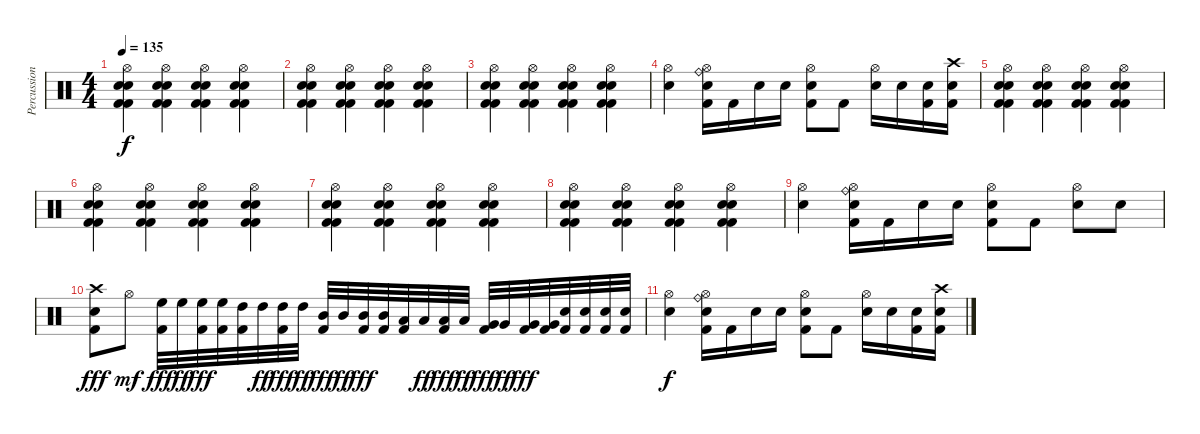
\track ("Percussions" "Percussion") {instrument percussion}
\staff {score}
\articulation defaults
\ts (4 4)
\tempo 135
\clef neutral
\ks c
("Hi-Hat (open)" "Electric Snare (hit)" "Electric Snare (hit)" "Kick (hit) 2" "Kick (hit) 2").4{dy f} ("Hi-Hat (open)" "Electric Snare (hit)" "Electric Snare (hit)" "Kick (hit) 2" "Kick (hit) 2").4 ("Hi-Hat (open)" "Electric Snare (hit)" "Electric Snare (hit)" "Kick (hit) 2" "Kick (hit) 2").4 ("Hi-Hat (open)" "Electric Snare (hit)" "Electric Snare (hit)" "Kick (hit) 2" "Kick (hit) 2").4 |
("Hi-Hat (open)" "Electric Snare (hit)" "Electric Snare (hit)" "Kick (hit) 2" "Kick (hit) 2").4 ("Hi-Hat (open)" "Electric Snare (hit)" "Electric Snare (hit)" "Kick (hit) 2" "Kick (hit) 2").4 ("Hi-Hat (open)" "Electric Snare (hit)" "Electric Snare (hit)" "Kick (hit) 2" "Kick (hit) 2").4 ("Hi-Hat (open)" "Electric Snare (hit)" "Electric Snare (hit)" "Kick (hit) 2" "Kick (hit) 2").4 |
("Hi-Hat (open)" "Electric Snare (hit)" "Electric Snare (hit)" "Kick (hit) 2" "Kick (hit) 2").4 ("Hi-Hat (open)" "Electric Snare (hit)" "Electric Snare (hit)" "Kick (hit) 2" "Kick (hit) 2").4 ("Hi-Hat (open)" "Electric Snare (hit)" "Electric Snare (hit)" "Kick (hit) 2" "Kick (hit) 2").4 ("Hi-Hat (open)" "Electric Snare (hit)" "Electric Snare (hit)" "Kick (hit) 2" "Kick (hit) 2").4 |
("Hi-Hat (open)" "Electric Snare (hit)").4 ("Hi-Hat (open)" "Ride (bell)" "Electric Snare (hit)" "Kick (hit) 2").16 "Kick (hit) 2".16 "Electric Snare (hit)".16 "Electric Snare (hit)".16 ("Hi-Hat (open)" "Electric Snare (hit)" "Kick (hit) 2").8 "Kick (hit) 2".8 ("Hi-Hat (open)" "Electric Snare (hit)").16 "Electric Snare (hit)".16 ("Electric Snare (hit)" "Kick (hit) 2").16 ("Crash high (hit)" "Electric Snare (hit)" "Kick (hit) 2").16 |
("Hi-Hat (open)" "Electric Snare (hit)" "Electric Snare (hit)" "Kick (hit) 2" "Kick (hit) 2").4 ("Hi-Hat (open)" "Electric Snare (hit)" "Electric Snare (hit)" "Kick (hit) 2" "Kick (hit) 2").4 ("Hi-Hat (open)" "Electric Snare (hit)" "Electric Snare (hit)" "Kick (hit) 2" "Kick (hit) 2").4 ("Hi-Hat (open)" "Electric Snare (hit)" "Electric Snare (hit)" "Kick (hit) 2" "Kick (hit) 2").4 |
("Hi-Hat (open)" "Electric Snare (hit)" "Electric Snare (hit)" "Kick (hit) 2" "Kick (hit) 2").4 ("Hi-Hat (open)" "Electric Snare (hit)" "Electric Snare (hit)" "Kick (hit) 2" "Kick (hit) 2").4 ("Hi-Hat (open)" "Electric Snare (hit)" "Electric Snare (hit)" "Kick (hit) 2" "Kick (hit) 2").4 ("Hi-Hat (open)" "Electric Snare (hit)" "Electric Snare (hit)" "Kick (hit) 2" "Kick (hit) 2").4 |
("Hi-Hat (open)" "Electric Snare (hit)" "Electric Snare (hit)" "Kick (hit) 2" "Kick (hit) 2").4 ("Hi-Hat (open)" "Electric Snare (hit)" "Electric Snare (hit)" "Kick (hit) 2" "Kick (hit) 2").4 ("Hi-Hat (open)" "Electric Snare (hit)" "Electric Snare (hit)" "Kick (hit) 2" "Kick (hit) 2").4 ("Hi-Hat (open)" "Electric Snare (hit)" "Electric Snare (hit)" "Kick (hit) 2" "Kick (hit) 2").4 |
("Hi-Hat (open)" "Electric Snare (hit)" "Electric Snare (hit)" "Kick (hit) 2" "Kick (hit) 2").4 ("Hi-Hat (open)" "Electric Snare (hit)" "Electric Snare (hit)" "Kick (hit) 2" "Kick (hit) 2").4 ("Hi-Hat (open)" "Electric Snare (hit)" "Electric Snare (hit)" "Kick (hit) 2" "Kick (hit) 2").4 ("Hi-Hat (open)" "Electric Snare (hit)" "Electric Snare (hit)" "Kick (hit) 2" "Kick (hit) 2").4 |
("Hi-Hat (open)" "Electric Snare (hit)").4 ("Hi-Hat (open)" "Ride (bell)" "Electric Snare (hit)" "Kick (hit) 2").16 "Kick (hit) 2".16 "Electric Snare (hit)".16 "Electric Snare (hit)".16 ("Hi-Hat (open)" "Electric Snare (hit)" "Kick (hit) 2").8 "Kick (hit) 2".8 ("Hi-Hat (open)" "Electric Snare (hit)").8 "Electric Snare (hit)".8 |
("Crash high (hit)" "Electric Snare (hit)" "Kick (hit) 2").8{dy fff} "Hi-Hat (open)".8{dy mf} ("High Floor Tom (hit)" "Kick (hit) 2").32{dy fff} "High Floor Tom (hit)".32{dy ff} ("High Floor Tom (hit)" "Kick (hit) 2").32{dy fff} ("High Floor Tom (hit)" "Kick (hit) 2").32 ("High Tom (hit)" "Kick (hit) 2").32 "High Tom (hit)".32{dy ff} ("High Tom (hit)" "Kick (hit) 2").32{dy fff} "High Tom (hit)".32{dy ff} ("Mid Tom (hit)" "Kick (hit) 2").32{dy fff} "Mid Tom (hit)".32{dy ff} ("Mid Tom (hit)" "Kick (hit) 2").32{dy fff} ("Mid Tom (hit)" "Kick (hit) 2").32 ("Low Tom (hit)" "Kick (hit) 2").32 "Low Tom (hit)".32{dy ff} ("Low Tom (hit)" "Kick (hit) 2").32{dy fff} "Low Tom (hit)".32{dy ff} ("Very Low Tom (hit)" "Kick (hit) 2").32{dy fff} "Very Low Tom (hit)".32{dy ff} ("Very Low Tom (hit)" "Kick (hit) 2").32{dy fff} ("Very Low Tom (hit)" "Kick (hit) 2").32 ("Electric Snare (hit)" "Kick (hit) 2").32 ("Electric Snare (hit)" "Kick (hit) 2").32 ("Electric Snare (hit)" "Kick (hit) 2").32 ("Electric Snare (hit)" "Kick (hit) 2").32 |
("Hi-Hat (open)" "Electric Snare (hit)").4{dy f} ("Hi-Hat (open)" "Ride (bell)" "Electric Snare (hit)" "Kick (hit) 2").16 "Kick (hit) 2".16 "Electric Snare (hit)".16 "Electric Snare (hit)".16 ("Hi-Hat (open)" "Electric Snare (hit)" "Kick (hit) 2").8 "Kick (hit) 2".8 ("Hi-Hat (open)" "Electric Snare (hit)").16 "Electric Snare (hit)".16 ("Electric Snare (hit)" "Kick (hit) 2").16 ("Crash high (hit)" "Electric Snare (hit)" "Kick (hit) 2").16
